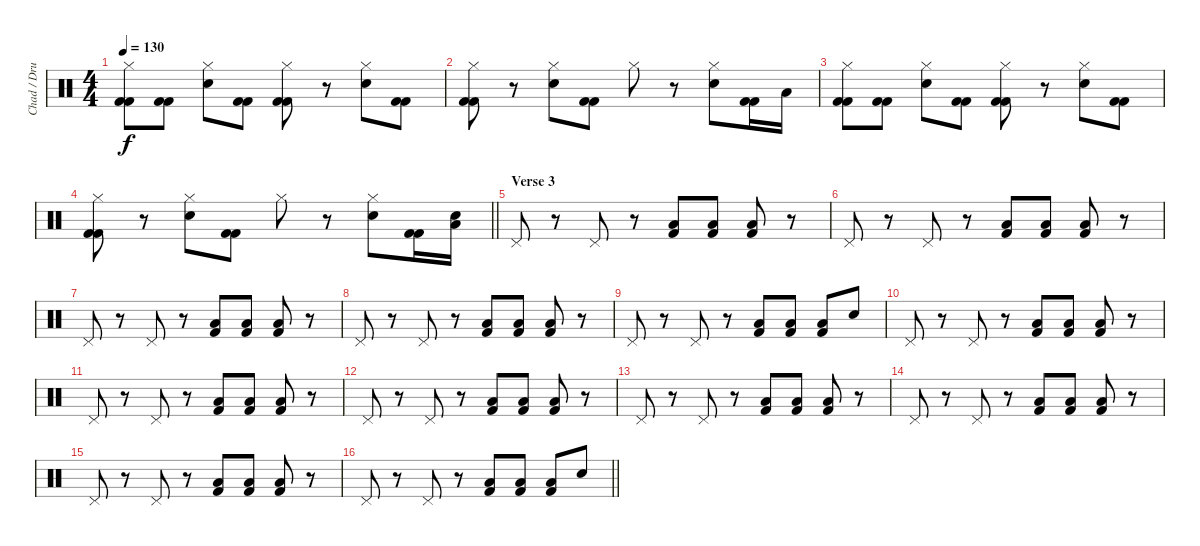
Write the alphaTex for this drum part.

\track ("Chad / Drums" "Chad / Dru") {instrument percussion}
\staff {score}
\articulation defaults
\ts (4 4)
\tempo 130
\clef neutral
\ks c
("Hi-Hat (closed)" "Kick (hit) 2" "Kick (hit) 2").8{dy f} ("Kick (hit) 2" "Kick (hit) 2").8 ("Hi-Hat (closed)" "Snare (hit) 2").8 ("Kick (hit) 2" "Kick (hit) 2").8 ("Hi-Hat (closed)" "Kick (hit) 2" "Kick (hit) 2").8 r.8 ("Hi-Hat (closed)" "Snare (hit) 2").8 ("Kick (hit) 2" "Kick (hit) 2").8 |
("Hi-Hat (closed)" "Kick (hit) 2" "Kick (hit) 2").8 r.8 ("Hi-Hat (closed)" "Snare (hit) 2").8 ("Kick (hit) 2" "Kick (hit) 2").8 "Hi-Hat (closed)".8 r.8 ("Hi-Hat (closed)" "Snare (hit) 2").8 ("Kick (hit) 2" "Kick (hit) 2").16 "Low Floor Tom (hit)".16 |
("Hi-Hat (closed)" "Kick (hit) 2" "Kick (hit) 2").8 ("Kick (hit) 2" "Kick (hit) 2").8 ("Hi-Hat (closed)" "Snare (hit) 2").8 ("Kick (hit) 2" "Kick (hit) 2").8 ("Hi-Hat (closed)" "Kick (hit) 2" "Kick (hit) 2").8 r.8 ("Hi-Hat (closed)" "Snare (hit) 2").8 ("Kick (hit) 2" "Kick (hit) 2").8 |
\barLineRight lightlight
("Hi-Hat (closed)" "Kick (hit) 2" "Kick (hit) 2").8 r.8 ("Hi-Hat (closed)" "Snare (hit) 2").8 ("Kick (hit) 2" "Kick (hit) 2").8 "Hi-Hat (closed)".8 r.8 ("Hi-Hat (closed)" "Snare (hit) 2").8 ("Kick (hit) 2" "Kick (hit) 2").16 ("Low Floor Tom (hit)" "Snare (hit) 2").16 |
\section ("" "Verse 3")
"Pedal Hi-Hat (hit)".8 r.8 "Pedal Hi-Hat (hit)".8 r.8 ("Low Floor Tom (hit)" "Kick (hit) 2").8 ("Low Floor Tom (hit)" "Kick (hit) 2").8 ("Low Floor Tom (hit)" "Kick (hit) 2").8 r.8 |
"Pedal Hi-Hat (hit)".8 r.8 "Pedal Hi-Hat (hit)".8 r.8 ("Low Floor Tom (hit)" "Kick (hit) 2").8 ("Low Floor Tom (hit)" "Kick (hit) 2").8 ("Low Floor Tom (hit)" "Kick (hit) 2").8 r.8 |
"Pedal Hi-Hat (hit)".8 r.8 "Pedal Hi-Hat (hit)".8 r.8 ("Low Floor Tom (hit)" "Kick (hit) 2").8 ("Low Floor Tom (hit)" "Kick (hit) 2").8 ("Low Floor Tom (hit)" "Kick (hit) 2").8 r.8 |
"Pedal Hi-Hat (hit)".8 r.8 "Pedal Hi-Hat (hit)".8 r.8 ("Low Floor Tom (hit)" "Kick (hit) 2").8 ("Low Floor Tom (hit)" "Kick (hit) 2").8 ("Low Floor Tom (hit)" "Kick (hit) 2").8 r.8 |
"Pedal Hi-Hat (hit)".8 r.8 "Pedal Hi-Hat (hit)".8 r.8 ("Low Floor Tom (hit)" "Kick (hit) 2").8 ("Low Floor Tom (hit)" "Kick (hit) 2").8 ("Low Floor Tom (hit)" "Kick (hit) 2").8 "Snare (hit) 2".8 |
"Pedal Hi-Hat (hit)".8 r.8 "Pedal Hi-Hat (hit)".8 r.8 ("Low Floor Tom (hit)" "Kick (hit) 2").8 ("Low Floor Tom (hit)" "Kick (hit) 2").8 ("Low Floor Tom (hit)" "Kick (hit) 2").8 r.8 |
"Pedal Hi-Hat (hit)".8 r.8 "Pedal Hi-Hat (hit)".8 r.8 ("Low Floor Tom (hit)" "Kick (hit) 2").8 ("Low Floor Tom (hit)" "Kick (hit) 2").8 ("Low Floor Tom (hit)" "Kick (hit) 2").8 r.8 |
"Pedal Hi-Hat (hit)".8 r.8 "Pedal Hi-Hat (hit)".8 r.8 ("Low Floor Tom (hit)" "Kick (hit) 2").8 ("Low Floor Tom (hit)" "Kick (hit) 2").8 ("Low Floor Tom (hit)" "Kick (hit) 2").8 r.8 |
"Pedal Hi-Hat (hit)".8 r.8 "Pedal Hi-Hat (hit)".8 r.8 ("Low Floor Tom (hit)" "Kick (hit) 2").8 ("Low Floor Tom (hit)" "Kick (hit) 2").8 ("Low Floor Tom (hit)" "Kick (hit) 2").8 r.8 |
"Pedal Hi-Hat (hit)".8 r.8 "Pedal Hi-Hat (hit)".8 r.8 ("Low Floor Tom (hit)" "Kick (hit) 2").8 ("Low Floor Tom (hit)" "Kick (hit) 2").8 ("Low Floor Tom (hit)" "Kick (hit) 2").8 r.8 |
"Pedal Hi-Hat (hit)".8 r.8 "Pedal Hi-Hat (hit)".8 r.8 ("Low Floor Tom (hit)" "Kick (hit) 2").8 ("Low Floor Tom (hit)" "Kick (hit) 2").8 ("Low Floor Tom (hit)" "Kick (hit) 2").8 r.8 |
\barLineRight lightlight "Pedal Hi-Hat (hit)".8
r.8 "Pedal Hi-Hat (hit)".8 r.8 ("Low Floor Tom (hit)" "Kick (hit) 2").8 ("Low Floor Tom (hit)" "Kick (hit) 2").8 ("Low Floor Tom (hit)" "Kick (hit) 2").8 "Snare (hit) 2".8
